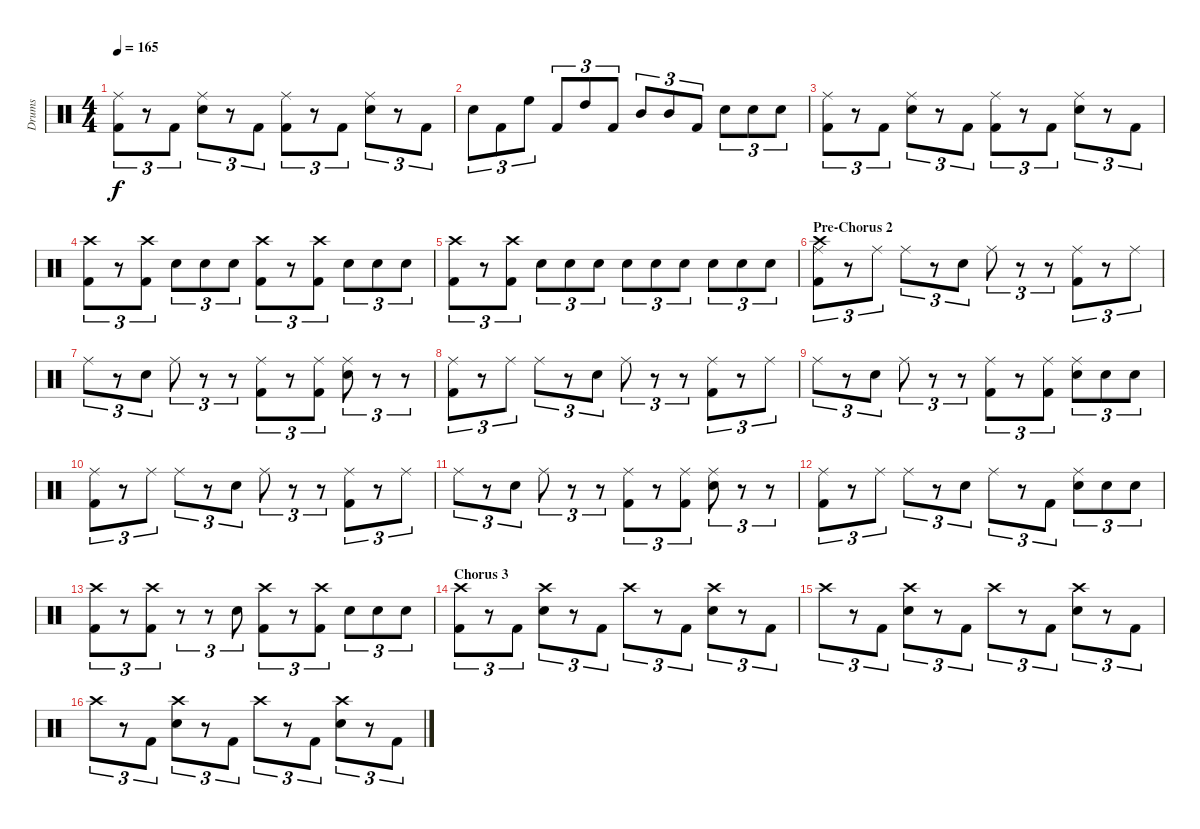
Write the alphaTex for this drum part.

\track ("Drums" "Drums") {instrument percussion}
\staff {score}
\articulation defaults
\ts (4 4)
\tempo 165
\clef neutral
\ks c
("Ride (middle)" "Kick (hit) 2").8{tu (3 2) dy f} r.8{tu (3 2)} "Kick (hit) 2".8{tu (3 2)} ("Ride (middle)" "Snare (hit) 2").8{tu (3 2)} r.8{tu (3 2)} "Kick (hit) 2".8{tu (3 2)} ("Ride (middle)" "Kick (hit) 2").8{tu (3 2)} r.8{tu (3 2)} "Kick (hit) 2".8{tu (3 2)} ("Ride (middle)" "Snare (hit) 2").8{tu (3 2)} r.8{tu (3 2)} "Kick (hit) 2".8{tu (3 2)} |
"Snare (hit) 2".8{tu (3 2)} "Kick (hit) 2".8{tu (3 2)} "High Floor Tom (hit)".8{tu (3 2)} "Kick (hit) 2".8{tu (3 2)} "High Tom (hit)".8{tu (3 2)} "Kick (hit) 2".8{tu (3 2)} "Mid Tom (hit)".8{tu (3 2)} "Mid Tom (hit)".8{tu (3 2)} "Kick (hit) 2".8{tu (3 2)} "Snare (hit) 2".8{tu (3 2)} "Snare (hit) 2".8{tu (3 2)} "Snare (hit) 2".8{tu (3 2)} |
("Ride (middle)" "Kick (hit) 2").8{tu (3 2)} r.8{tu (3 2)} "Kick (hit) 2".8{tu (3 2)} ("Ride (middle)" "Snare (hit) 2").8{tu (3 2)} r.8{tu (3 2)} "Kick (hit) 2".8{tu (3 2)} ("Ride (middle)" "Kick (hit) 2").8{tu (3 2)} r.8{tu (3 2)} "Kick (hit) 2".8{tu (3 2)} ("Ride (middle)" "Snare (hit) 2").8{tu (3 2)} r.8{tu (3 2)} "Kick (hit) 2".8{tu (3 2)} |
("Crash high (hit)" "Kick (hit) 2").8{tu (3 2)} r.8{tu (3 2)} ("Crash high (hit)" "Kick (hit) 2").8{tu (3 2)} "Snare (hit) 2".8{tu (3 2)} "Snare (hit) 2".8{tu (3 2)} "Snare (hit) 2".8{tu (3 2)} ("Crash high (hit)" "Kick (hit) 2").8{tu (3 2)} r.8{tu (3 2)} ("Crash high (hit)" "Kick (hit) 2").8{tu (3 2)} "Snare (hit) 2".8{tu (3 2)} "Snare (hit) 2".8{tu (3 2)} "Snare (hit) 2".8{tu (3 2)} |
("Crash high (hit)" "Kick (hit) 2").8{tu (3 2)} r.8{tu (3 2)} ("Crash high (hit)" "Kick (hit) 2").8{tu (3 2)} "Snare (hit) 2".8{tu (3 2)} "Snare (hit) 2".8{tu (3 2)} "Snare (hit) 2".8{tu (3 2)} "Snare (hit) 2".8{tu (3 2)} "Snare (hit) 2".8{tu (3 2)} "Snare (hit) 2".8{tu (3 2)} "Snare (hit) 2".8{tu (3 2)} "Snare (hit) 2".8{tu (3 2)} "Snare (hit) 2".8{tu (3 2)} |
\section ("" "Pre-Chorus 2")
("Ride (middle)" "Crash high (hit)" "Kick (hit) 2").8{tu (3 2)} r.8{tu (3 2)} "Ride (middle)".8{tu (3 2)} "Ride (middle)".8{tu (3 2)} r.8{tu (3 2)} "Snare (hit) 2".8{tu (3 2)} "Ride (middle)".8{tu (3 2)} r.8{tu (3 2)} r.8{tu (3 2)} ("Ride (middle)" "Kick (hit) 2").8{tu (3 2)} r.8{tu (3 2)} "Ride (middle)".8{tu (3 2)} |
"Ride (middle)".8{tu (3 2)} r.8{tu (3 2)} "Snare (hit) 2".8{tu (3 2)} "Ride (middle)".8{tu (3 2)} r.8{tu (3 2)} r.8{tu (3 2)} ("Ride (middle)" "Kick (hit) 2").8{tu (3 2)} r.8{tu (3 2)} ("Ride (middle)" "Kick (hit) 2").8{tu (3 2)} ("Ride (middle)" "Snare (hit) 2").8{tu (3 2)} r.8{tu (3 2)} r.8{tu (3 2)} |
("Ride (middle)" "Kick (hit) 2").8{tu (3 2)} r.8{tu (3 2)} "Ride (middle)".8{tu (3 2)} "Ride (middle)".8{tu (3 2)} r.8{tu (3 2)} "Snare (hit) 2".8{tu (3 2)} "Ride (middle)".8{tu (3 2)} r.8{tu (3 2)} r.8{tu (3 2)} ("Ride (middle)" "Kick (hit) 2").8{tu (3 2)} r.8{tu (3 2)} "Ride (middle)".8{tu (3 2)} |
"Ride (middle)".8{tu (3 2)} r.8{tu (3 2)} "Snare (hit) 2".8{tu (3 2)} "Ride (middle)".8{tu (3 2)} r.8{tu (3 2)} r.8{tu (3 2)} ("Ride (middle)" "Kick (hit) 2").8{tu (3 2)} r.8{tu (3 2)} ("Ride (middle)" "Kick (hit) 2").8{tu (3 2)} ("Ride (middle)" "Snare (hit) 2").8{tu (3 2)} "Snare (hit) 2".8{tu (3 2)} "Snare (hit) 2".8{tu (3 2)} |
("Ride (middle)" "Kick (hit) 2").8{tu (3 2)} r.8{tu (3 2)} "Ride (middle)".8{tu (3 2)} "Ride (middle)".8{tu (3 2)} r.8{tu (3 2)} "Snare (hit) 2".8{tu (3 2)} "Ride (middle)".8{tu (3 2)} r.8{tu (3 2)} r.8{tu (3 2)} ("Ride (middle)" "Kick (hit) 2").8{tu (3 2)} r.8{tu (3 2)} "Ride (middle)".8{tu (3 2)} |
"Ride (middle)".8{tu (3 2)} r.8{tu (3 2)} "Snare (hit) 2".8{tu (3 2)} "Ride (middle)".8{tu (3 2)} r.8{tu (3 2)} r.8{tu (3 2)} ("Ride (middle)" "Kick (hit) 2").8{tu (3 2)} r.8{tu (3 2)} ("Ride (middle)" "Kick (hit) 2").8{tu (3 2)} ("Ride (middle)" "Snare (hit) 2").8{tu (3 2)} r.8{tu (3 2)} r.8{tu (3 2)} |
("Ride (middle)" "Kick (hit) 2").8{tu (3 2)} r.8{tu (3 2)} "Ride (middle)".8{tu (3 2)} "Ride (middle)".8{tu (3 2)} r.8{tu (3 2)} "Snare (hit) 2".8{tu (3 2)} "Ride (middle)".8{tu (3 2)} r.8{tu (3 2)} "Kick (hit) 2".8{tu (3 2)} ("Ride (middle)" "Snare (hit) 2").8{tu (3 2)} "Snare (hit) 2".8{tu (3 2)} "Snare (hit) 2".8{tu (3 2)} |
("Crash high (hit)" "Kick (hit) 2").8{tu (3 2)} r.8{tu (3 2)} ("Crash high (hit)" "Kick (hit) 2").8{tu (3 2)} r.8{tu (3 2)} r.8{tu (3 2)} "Snare (hit) 2".8{tu (3 2)} ("Crash high (hit)" "Kick (hit) 2").8{tu (3 2)} r.8{tu (3 2)} ("Crash high (hit)" "Kick (hit) 2").8{tu (3 2)} "Snare (hit) 2".8{tu (3 2)} "Snare (hit) 2".8{tu (3 2)} "Snare (hit) 2".8{tu (3 2)} |
\section ("" "Chorus 3")
("Crash high (hit)" "Kick (hit) 2").8{tu (3 2)} r.8{tu (3 2)} "Kick (hit) 2".8{tu (3 2)} ("Crash high (hit)" "Snare (hit) 2").8{tu (3 2)} r.8{tu (3 2)} "Kick (hit) 2".8{tu (3 2)} "Crash high (hit)".8{tu (3 2)} r.8{tu (3 2)} "Kick (hit) 2".8{tu (3 2)} ("Crash high (hit)" "Snare (hit) 2").8{tu (3 2)} r.8{tu (3 2)} "Kick (hit) 2".8{tu (3 2)} |
"Crash high (hit)".8{tu (3 2)} r.8{tu (3 2)} "Kick (hit) 2".8{tu (3 2)} ("Crash high (hit)" "Snare (hit) 2").8{tu (3 2)} r.8{tu (3 2)} "Kick (hit) 2".8{tu (3 2)} "Crash high (hit)".8{tu (3 2)} r.8{tu (3 2)} "Kick (hit) 2".8{tu (3 2)} ("Crash high (hit)" "Snare (hit) 2").8{tu (3 2)} r.8{tu (3 2)} "Kick (hit) 2".8{tu (3 2)} |
"Crash high (hit)".8{tu (3 2)} r.8{tu (3 2)} "Kick (hit) 2".8{tu (3 2)} ("Crash high (hit)" "Snare (hit) 2").8{tu (3 2)} r.8{tu (3 2)} "Kick (hit) 2".8{tu (3 2)} "Crash high (hit)".8{tu (3 2)} r.8{tu (3 2)} "Kick (hit) 2".8{tu (3 2)} ("Crash high (hit)" "Snare (hit) 2").8{tu (3 2)} r.8{tu (3 2)} "Kick (hit) 2".8{tu (3 2)}
